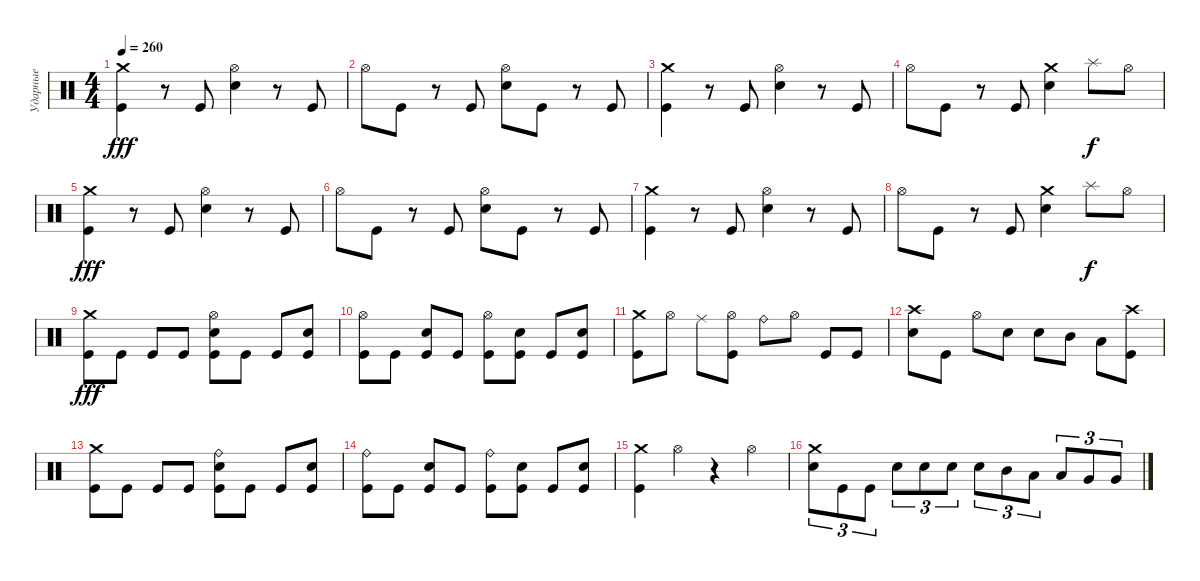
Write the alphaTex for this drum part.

\track ("Ударные" "Ударные") {instrument percussion}
\staff {score}
\articulation defaults
\ts (4 4)
\tempo 260
\clef neutral
\ks c
("Crash medium (hit)" "Kick (hit)").4{dy fff} r.8 "Kick (hit)".8 ("Electric Snare (hit)" "Hi-Hat (open)").4 r.8 "Kick (hit)".8 |
"Hi-Hat (open)".8 "Kick (hit)".8 r.8 "Kick (hit)".8 ("Electric Snare (hit)" "Hi-Hat (open)").8 "Kick (hit)".8 r.8 "Kick (hit)".8 |
("Crash medium (hit)" "Kick (hit)").4 r.8 "Kick (hit)".8 ("Electric Snare (hit)" "Hi-Hat (open)").4 r.8 "Kick (hit)".8 |
"Hi-Hat (open)".8 "Kick (hit)".8 r.8 "Kick (hit)".8 ("Electric Snare (hit)" "Crash medium (hit)").4 "Splash (hit)".8{dy f} "Hi-Hat (open)".8 |
("Crash medium (hit)" "Kick (hit)").4{dy fff} r.8 "Kick (hit)".8 ("Electric Snare (hit)" "Hi-Hat (open)").4 r.8 "Kick (hit)".8 |
"Hi-Hat (open)".8 "Kick (hit)".8 r.8 "Kick (hit)".8 ("Electric Snare (hit)" "Hi-Hat (open)").8 "Kick (hit)".8 r.8 "Kick (hit)".8 |
("Crash medium (hit)" "Kick (hit)").4 r.8 "Kick (hit)".8 ("Electric Snare (hit)" "Hi-Hat (open)").4 r.8 "Kick (hit)".8 |
"Hi-Hat (open)".8 "Kick (hit)".8 r.8 "Kick (hit)".8 ("Electric Snare (hit)" "Crash medium (hit)").4 "Splash (hit)".8{dy f} "Hi-Hat (open)".8 |
("Kick (hit)" "Crash medium (hit)").8{dy fff} "Kick (hit)".8 "Kick (hit)".8 "Kick (hit)".8 ("Kick (hit)" "Electric Snare (hit)" "Hi-Hat (open)").8 "Kick (hit)".8 "Kick (hit)".8 ("Kick (hit)" "Electric Snare (hit)").8 |
("Kick (hit)" "Hi-Hat (open)").8 "Kick (hit)".8 ("Kick (hit)" "Electric Snare (hit)").8 "Kick (hit)".8 ("Kick (hit)" "Hi-Hat (open)").8 ("Kick (hit)" "Electric Snare (hit)").8 "Kick (hit)".8 ("Kick (hit)" "Electric Snare (hit)").8 |
("Crash medium (hit)" "Kick (hit)").8 "Hi-Hat (open)".8 "Ride (middle)".8 ("Hi-Hat (open)" "Kick (hit)").8 "Ride (bell)".8 "Hi-Hat (open)".8 "Kick (hit)".8 "Kick (hit)".8 |
("Electric Snare (hit)" "Crash high (hit)").8 "Kick (hit)".8 "Hi-Hat (open)".8 "Electric Snare (hit)".8 "Electric Snare (hit)".8 "Mid Tom (hit)".8 "Low Tom (hit)".8 ("Crash high (hit)" "Kick (hit)").8 |
("Kick (hit)" "Crash medium (hit)").8 "Kick (hit)".8 "Kick (hit)".8 "Kick (hit)".8 ("Kick (hit)" "Electric Snare (hit)" "Ride (bell)").8 "Kick (hit)".8 "Kick (hit)".8 ("Kick (hit)" "Electric Snare (hit)").8 |
("Kick (hit)" "Ride (bell)").8 "Kick (hit)".8 ("Kick (hit)" "Electric Snare (hit)").8 "Kick (hit)".8 ("Kick (hit)" "Ride (bell)").8 ("Kick (hit)" "Electric Snare (hit)").8 "Kick (hit)".8 ("Kick (hit)" "Electric Snare (hit)").8 |
("Crash medium (hit)" "Kick (hit)").4 "Hi-Hat (open)".4 r.4 "Hi-Hat (open)".4 |
("Electric Snare (hit)" "Crash medium (hit)").8{tu (3 2)} "Kick (hit)".8{tu (3 2)} "Kick (hit)".8{tu (3 2)} "Electric Snare (hit)".8{tu (3 2)} "Electric Snare (hit)".8{tu (3 2)} "Electric Snare (hit)".8{tu (3 2)} "Electric Snare (hit)".8{tu (3 2)} "Mid Tom (hit)".8{tu (3 2)} "Low Tom (hit)".8{tu (3 2)} "Low Tom (hit)".8{tu (3 2)} "Very Low Tom (hit)".8{tu (3 2)} "Very Low Tom (hit)".8{tu (3 2)}
